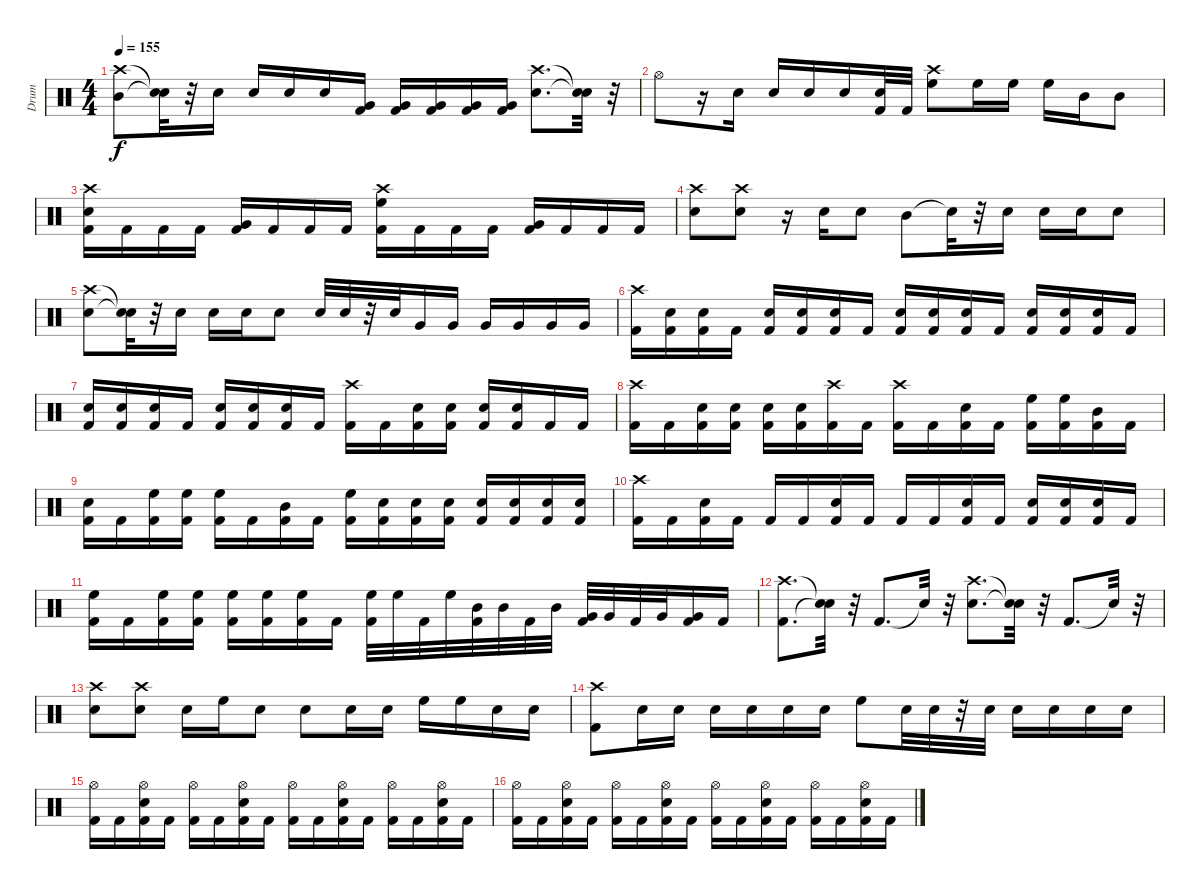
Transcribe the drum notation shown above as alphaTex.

\track ("Drum" "Drum") {instrument percussion}
\staff {score}
\articulation defaults
\ts (4 4)
\tempo 155
\clef neutral
\ks c
("Mid Tom (hit)" "Crash high (hit)").8{dy f} ("Snare (hit)"{t} "Snare (hit)"{t}).32 r.32 "Snare (hit) 2".16 "Snare (hit) 2".16 "Snare (hit) 2".16 "Snare (hit) 2".16 ("Very Low Tom (hit)" "Kick (hit) 2").16 ("Very Low Tom (hit)" "Kick (hit) 2").16 ("Very Low Tom (hit)" "Kick (hit) 2").16 ("Very Low Tom (hit)" "Kick (hit) 2").16 ("Very Low Tom (hit)" "Kick (hit) 2").16 ("Snare (hit) 2" "Crash high (hit)").8{d} ("Snare (hit)"{t} "Snare (hit)"{t}).32 r.32 |
"Hi-Hat (open)".8 r.16 "Snare (hit) 2".16 "Snare (hit) 2".16 "Snare (hit) 2".16 "Snare (hit) 2".16 ("Snare (hit) 2" "Kick (hit) 2").32 "Kick (hit) 2".32 ("High Floor Tom (hit)" "Crash high (hit)").8 "High Floor Tom (hit)".16 "High Floor Tom (hit)".16 "High Floor Tom (hit)".16 "Mid Tom (hit)".16 "Mid Tom (hit)".8 |
("Kick (hit) 2" "Crash high (hit)" "Snare (hit) 2").16 "Kick (hit) 2".16 "Kick (hit) 2".16 "Kick (hit) 2".16 ("Kick (hit) 2" "Very Low Tom (hit)").16 "Kick (hit) 2".16 "Kick (hit) 2".16 "Kick (hit) 2".16 ("Kick (hit) 2" "Crash high (hit)" "High Floor Tom (hit)").16 "Kick (hit) 2".16 "Kick (hit) 2".16 "Kick (hit) 2".16 ("Kick (hit) 2" "Very Low Tom (hit)").16 "Kick (hit) 2".16 "Kick (hit) 2".16 "Kick (hit) 2".16 |
("Crash high (hit)" "Snare (hit) 2").8 ("Crash high (hit)" "Snare (hit) 2").8 r.16 "Snare (hit) 2".16 "Snare (hit) 2".8 "Mid Tom (hit)".8 "Snare (hit)"{t}.32 r.32 "Snare (hit) 2".16 "Snare (hit) 2".16 "Snare (hit) 2".16 "Snare (hit) 2".8 |
("Crash high (hit)" "Snare (hit) 2").8 ("Snare (hit)"{t} "Snare (hit)"{t}).32 r.32 "Snare (hit) 2".16 "Snare (hit) 2".16 "Snare (hit) 2".16 "Snare (hit) 2".8 "Snare (hit) 2".32 "Snare (hit) 2".32 r.32 "Snare (hit) 2".32 "Very Low Tom (hit)".16 "Very Low Tom (hit)".16 "Very Low Tom (hit)".16 "Very Low Tom (hit)".16 "Very Low Tom (hit)".16 "Very Low Tom (hit)".16 |
("Kick (hit) 2" "Crash high (hit)").16 ("Kick (hit) 2" "Snare (hit) 2").16 ("Kick (hit) 2" "Snare (hit) 2").16 "Kick (hit) 2".16 ("Kick (hit) 2" "Snare (hit) 2").16 ("Kick (hit) 2" "Snare (hit) 2").16 ("Kick (hit) 2" "Snare (hit) 2").16 "Kick (hit) 2".16 ("Kick (hit) 2" "Snare (hit) 2").16 ("Kick (hit) 2" "Snare (hit) 2").16 ("Kick (hit) 2" "Snare (hit) 2").16 "Kick (hit) 2".16 ("Kick (hit) 2" "Snare (hit) 2").16 ("Kick (hit) 2" "Snare (hit) 2").16 ("Kick (hit) 2" "Snare (hit) 2").16 "Kick (hit) 2".16 |
("Kick (hit) 2" "Snare (hit) 2").16 ("Kick (hit) 2" "Snare (hit) 2").16 ("Kick (hit) 2" "Snare (hit) 2").16 "Kick (hit) 2".16 ("Kick (hit) 2" "Snare (hit) 2").16 ("Kick (hit) 2" "Snare (hit) 2").16 ("Kick (hit) 2" "Snare (hit) 2").16 "Kick (hit) 2".16 ("Kick (hit) 2" "Crash high (hit)").16 "Kick (hit) 2".16 ("Kick (hit) 2" "Snare (hit) 2").16 ("Kick (hit) 2" "Snare (hit) 2").16 ("Kick (hit) 2" "Snare (hit) 2").16 ("Kick (hit) 2" "Snare (hit) 2").16 "Kick (hit) 2".16 "Kick (hit) 2".16 |
("Kick (hit) 2" "Crash high (hit)").16 "Kick (hit) 2".16 ("Kick (hit) 2" "Snare (hit) 2").16 ("Kick (hit) 2" "Snare (hit) 2").16 ("Kick (hit) 2" "Snare (hit) 2").16 ("Kick (hit) 2" "Snare (hit) 2").16 ("Kick (hit) 2" "Crash high (hit)").16 "Kick (hit) 2".16 ("Crash high (hit)" "Kick (hit) 2").16 "Kick (hit) 2".16 ("Snare (hit) 2" "Kick (hit) 2").16 "Kick (hit) 2".16 ("High Floor Tom (hit)" "Kick (hit) 2").16 ("High Floor Tom (hit)" "Kick (hit) 2").16 ("Mid Tom (hit)" "Kick (hit) 2").16 "Kick (hit) 2".16 |
("Kick (hit) 2" "Snare (hit) 2").16 "Kick (hit) 2".16 ("Kick (hit) 2" "High Floor Tom (hit)").16 ("Kick (hit) 2" "High Floor Tom (hit)").16 ("Kick (hit) 2" "High Floor Tom (hit)").16 "Kick (hit) 2".16 ("Kick (hit) 2" "Mid Tom (hit)").16 "Kick (hit) 2".16 ("Kick (hit) 2" "High Floor Tom (hit)").16 ("Kick (hit) 2" "Snare (hit) 2").16 ("Kick (hit) 2" "Snare (hit) 2").16 ("Kick (hit) 2" "Snare (hit) 2").16 ("Kick (hit) 2" "Snare (hit) 2").16 ("Kick (hit) 2" "Snare (hit) 2").16 ("Kick (hit) 2" "Snare (hit) 2").16 ("Kick (hit) 2" "Snare (hit) 2").16 |
("Kick (hit) 2" "Crash high (hit)").16 "Kick (hit) 2".16 ("Kick (hit) 2" "Snare (hit) 2").16 "Kick (hit) 2".16 "Kick (hit) 2".16 "Kick (hit) 2".16 ("Kick (hit) 2" "Snare (hit) 2").16 "Kick (hit) 2".16 "Kick (hit) 2".16 "Kick (hit) 2".16 ("Kick (hit) 2" "Snare (hit) 2").16 "Kick (hit) 2".16 ("Kick (hit) 2" "Snare (hit) 2").16 ("Kick (hit) 2" "Snare (hit) 2").16 ("Kick (hit) 2" "Snare (hit) 2").16 "Kick (hit) 2".16 |
("Kick (hit) 2" "High Floor Tom (hit)").16 "Kick (hit) 2".16 ("Kick (hit) 2" "High Floor Tom (hit)").16 ("Kick (hit) 2" "High Floor Tom (hit)").16 ("Kick (hit) 2" "High Floor Tom (hit)").16 ("Kick (hit) 2" "High Floor Tom (hit)").16 ("Kick (hit) 2" "High Floor Tom (hit)").16 "Kick (hit) 2".16 ("Kick (hit) 2" "High Floor Tom (hit)").32 "High Floor Tom (hit)".32 "Kick (hit) 2".32 "High Floor Tom (hit)".32 ("Kick (hit) 2" "Mid Tom (hit)").32 "Mid Tom (hit)".32 "Kick (hit) 2".32 "Mid Tom (hit)".32 ("Kick (hit) 2" "Very Low Tom (hit)").32 "Very Low Tom (hit)".32 "Kick (hit) 2".32 "Very Low Tom (hit)".32 ("Kick (hit) 2" "Very Low Tom (hit)").16 "Kick (hit) 2".16 |
("Kick (hit) 2" "Crash high (hit)").8{d} ("Snare (hit)"{t} "Snare (hit)"{t}).32 r.32 "Kick (hit) 2".8{d} "Snare (hit)"{t}.32 r.32 ("Snare (hit) 2" "Crash high (hit)").8{d} ("Snare (hit)"{t} "Snare (hit)"{t}).32 r.32 "Kick (hit) 2".8{d} "Snare (hit)"{t}.32 r.32 |
("Snare (hit) 2" "Crash high (hit)").8 ("Snare (hit) 2" "Crash high (hit)").8 "Snare (hit) 2".16 "High Floor Tom (hit)".16 "Snare (hit) 2".8 "Snare (hit) 2".8 "Snare (hit) 2".16 "Snare (hit) 2".16 "High Floor Tom (hit)".16 "High Floor Tom (hit)".16 "Snare (hit) 2".16 "Snare (hit) 2".16 |
("Kick (hit) 2" "Crash high (hit)").8 "Snare (hit) 2".16 "Snare (hit) 2".16 "Snare (hit) 2".16 "Snare (hit) 2".16 "Snare (hit) 2".16 "Snare (hit) 2".16 "High Floor Tom (hit)".8 "Snare (hit) 2".32 "Snare (hit) 2".32 r.32 "Snare (hit) 2".32 "Snare (hit) 2".16 "Snare (hit) 2".16 "Snare (hit) 2".16 "Snare (hit) 2".16 |
("Kick (hit) 2" "Hi-Hat (open)").16 "Kick (hit) 2".16 ("Kick (hit) 2" "Snare (hit) 2" "Hi-Hat (open)").16 "Kick (hit) 2".16 ("Kick (hit) 2" "Hi-Hat (open)").16 "Kick (hit) 2".16 ("Kick (hit) 2" "Snare (hit) 2" "Hi-Hat (open)").16 "Kick (hit) 2".16 ("Kick (hit) 2" "Hi-Hat (open)").16 "Kick (hit) 2".16 ("Kick (hit) 2" "Snare (hit) 2" "Hi-Hat (open)").16 "Kick (hit) 2".16 ("Kick (hit) 2" "Hi-Hat (open)").16 "Kick (hit) 2".16 ("Kick (hit) 2" "Snare (hit) 2" "Hi-Hat (open)").16 "Kick (hit) 2".16 |
("Kick (hit) 2" "Hi-Hat (open)").16 "Kick (hit) 2".16 ("Kick (hit) 2" "Snare (hit) 2" "Hi-Hat (open)").16 "Kick (hit) 2".16 ("Kick (hit) 2" "Hi-Hat (open)").16 "Kick (hit) 2".16 ("Kick (hit) 2" "Snare (hit) 2" "Hi-Hat (open)").16 "Kick (hit) 2".16 ("Kick (hit) 2" "Hi-Hat (open)").16 "Kick (hit) 2".16 ("Kick (hit) 2" "Snare (hit) 2" "Hi-Hat (open)").16 "Kick (hit) 2".16 ("Kick (hit) 2" "Hi-Hat (open)").16 "Kick (hit) 2".16 ("Kick (hit) 2" "Snare (hit) 2" "Hi-Hat (open)").16 "Kick (hit) 2".16
